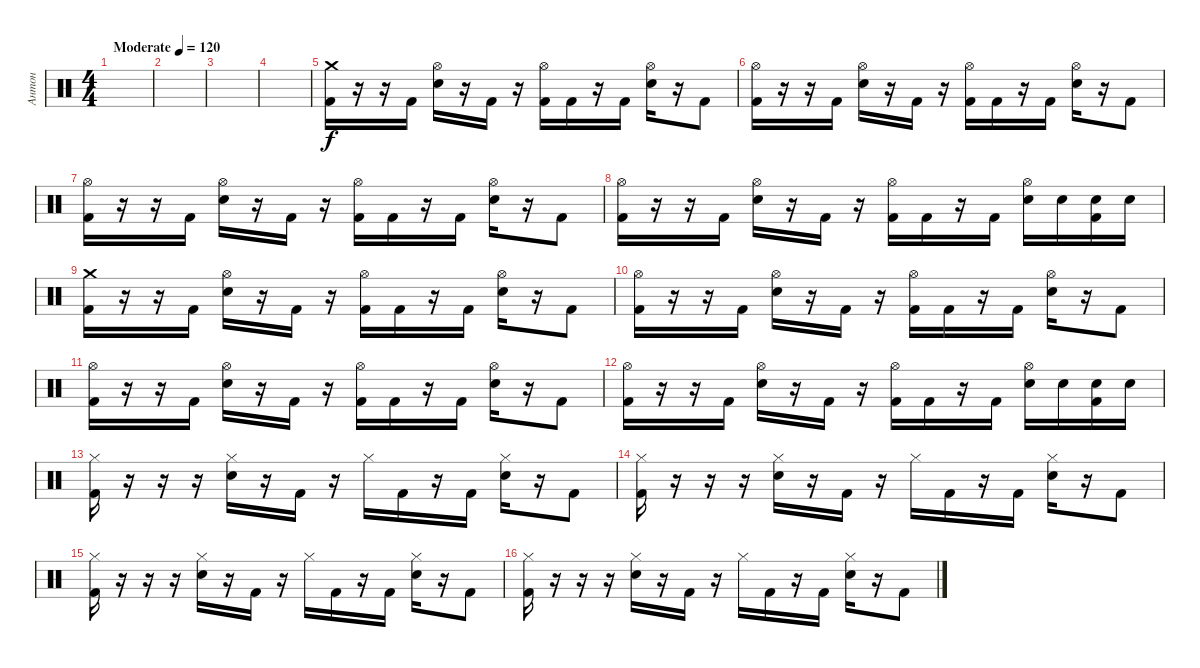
\track ("Антон" "Антон") {instrument percussion}
\staff {score}
\articulation defaults
\ts (4 4)
\tempo (120 "Moderate")
\clef neutral
\ks c
|
|
|
|
("Crash medium (hit)" "Kick (hit) 2").16 r.16 r.16 "Kick (hit) 2".16 ("Hi-Hat (open)" "Electric Snare (hit)").16 r.16 "Kick (hit) 2".16 r.16 ("Hi-Hat (open)" "Kick (hit) 2").16 "Kick (hit) 2".16 r.16 "Kick (hit) 2".16 ("Hi-Hat (open)" "Electric Snare (hit)").16 r.16 "Kick (hit) 2".8 |
("Hi-Hat (open)" "Kick (hit) 2").16 r.16 r.16 "Kick (hit) 2".16 ("Hi-Hat (open)" "Electric Snare (hit)").16 r.16 "Kick (hit) 2".16 r.16 ("Hi-Hat (open)" "Kick (hit) 2").16 "Kick (hit) 2".16 r.16 "Kick (hit) 2".16 ("Hi-Hat (open)" "Electric Snare (hit)").16 r.16 "Kick (hit) 2".8 |
("Hi-Hat (open)" "Kick (hit) 2").16 r.16 r.16 "Kick (hit) 2".16 ("Hi-Hat (open)" "Electric Snare (hit)").16 r.16 "Kick (hit) 2".16 r.16 ("Hi-Hat (open)" "Kick (hit) 2").16 "Kick (hit) 2".16 r.16 "Kick (hit) 2".16 ("Hi-Hat (open)" "Electric Snare (hit)").16 r.16 "Kick (hit) 2".8 |
("Hi-Hat (open)" "Kick (hit) 2").16 r.16 r.16 "Kick (hit) 2".16 ("Hi-Hat (open)" "Electric Snare (hit)").16 r.16 "Kick (hit) 2".16 r.16 ("Hi-Hat (open)" "Kick (hit) 2").16 "Kick (hit) 2".16 r.16 "Kick (hit) 2".16 ("Hi-Hat (open)" "Electric Snare (hit)").16 "Electric Snare (hit)".16 ("Electric Snare (hit)" "Kick (hit) 2").16 "Electric Snare (hit)".16 |
("Crash medium (hit)" "Kick (hit) 2").16 r.16 r.16 "Kick (hit) 2".16 ("Hi-Hat (open)" "Electric Snare (hit)").16 r.16 "Kick (hit) 2".16 r.16 ("Hi-Hat (open)" "Kick (hit) 2").16 "Kick (hit) 2".16 r.16 "Kick (hit) 2".16 ("Hi-Hat (open)" "Electric Snare (hit)").16 r.16 "Kick (hit) 2".8 |
("Hi-Hat (open)" "Kick (hit) 2").16 r.16 r.16 "Kick (hit) 2".16 ("Hi-Hat (open)" "Electric Snare (hit)").16 r.16 "Kick (hit) 2".16 r.16 ("Hi-Hat (open)" "Kick (hit) 2").16 "Kick (hit) 2".16 r.16 "Kick (hit) 2".16 ("Hi-Hat (open)" "Electric Snare (hit)").16 r.16 "Kick (hit) 2".8 |
("Hi-Hat (open)" "Kick (hit) 2").16 r.16 r.16 "Kick (hit) 2".16 ("Hi-Hat (open)" "Electric Snare (hit)").16 r.16 "Kick (hit) 2".16 r.16 ("Hi-Hat (open)" "Kick (hit) 2").16 "Kick (hit) 2".16 r.16 "Kick (hit) 2".16 ("Hi-Hat (open)" "Electric Snare (hit)").16 r.16 "Kick (hit) 2".8 |
("Hi-Hat (open)" "Kick (hit) 2").16 r.16 r.16 "Kick (hit) 2".16 ("Hi-Hat (open)" "Electric Snare (hit)").16 r.16 "Kick (hit) 2".16 r.16 ("Hi-Hat (open)" "Kick (hit) 2").16 "Kick (hit) 2".16 r.16 "Kick (hit) 2".16 ("Hi-Hat (open)" "Electric Snare (hit)").16 "Electric Snare (hit)".16 ("Electric Snare (hit)" "Kick (hit) 2").16 "Electric Snare (hit)".16 |
("Hi-Hat (closed)" "Kick (hit) 2").16 r.16 r.16 r.16 ("Hi-Hat (closed)" "Electric Snare (hit)").16 r.16 "Kick (hit) 2".16 r.16 "Hi-Hat (closed)".16 "Kick (hit) 2".16 r.16 "Kick (hit) 2".16 ("Hi-Hat (closed)" "Electric Snare (hit)").16 r.16 "Kick (hit) 2".8 |
("Hi-Hat (closed)" "Kick (hit) 2").16 r.16 r.16 r.16 ("Hi-Hat (closed)" "Electric Snare (hit)").16 r.16 "Kick (hit) 2".16 r.16 "Hi-Hat (closed)".16 "Kick (hit) 2".16 r.16 "Kick (hit) 2".16 ("Hi-Hat (closed)" "Electric Snare (hit)").16 r.16 "Kick (hit) 2".8 |
("Hi-Hat (closed)" "Kick (hit) 2").16 r.16 r.16 r.16 ("Hi-Hat (closed)" "Electric Snare (hit)").16 r.16 "Kick (hit) 2".16 r.16 "Hi-Hat (closed)".16 "Kick (hit) 2".16 r.16 "Kick (hit) 2".16 ("Hi-Hat (closed)" "Electric Snare (hit)").16 r.16 "Kick (hit) 2".8 |
("Hi-Hat (closed)" "Kick (hit) 2").16 r.16 r.16 r.16 ("Hi-Hat (closed)" "Electric Snare (hit)").16 r.16 "Kick (hit) 2".16 r.16 "Hi-Hat (closed)".16 "Kick (hit) 2".16 r.16 "Kick (hit) 2".16 ("Hi-Hat (closed)" "Electric Snare (hit)").16 r.16 "Kick (hit) 2".8
